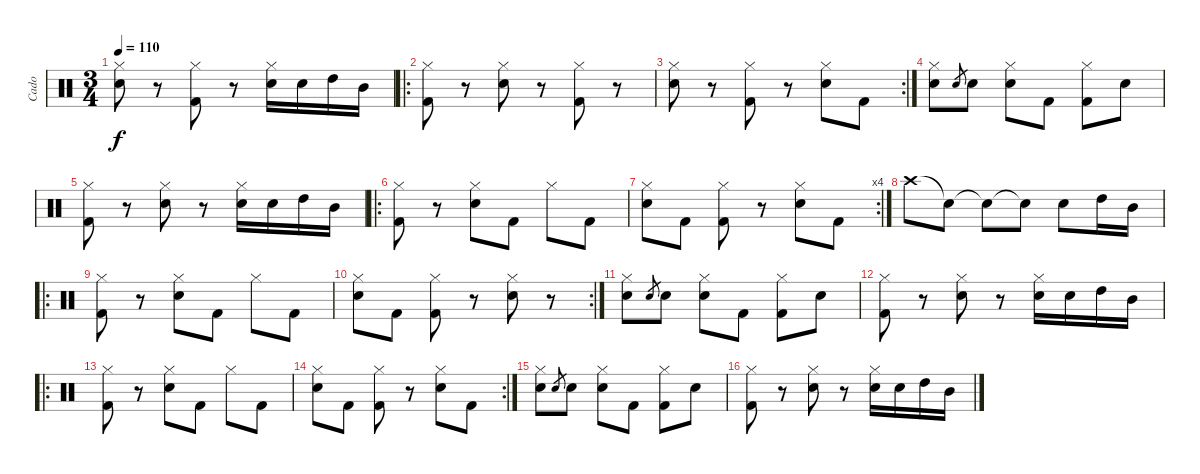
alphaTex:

\track ("Cado" "Cado") {instrument percussion}
\staff {score}
\articulation defaults
\ts (3 4)
\tempo 110
\clef neutral
\ks c
("Hi-Hat (closed)" "Snare (hit) 2").8{dy f} r.8 ("Hi-Hat (closed)" "Kick (hit) 2").8 r.8 ("Hi-Hat (closed)" "Snare (hit) 2").16 "Snare (hit) 2".16 "High Tom (hit)".16 "Mid Tom (hit)".16 |
\ro
("Hi-Hat (closed)" "Kick (hit) 2").8 r.8 ("Hi-Hat (closed)" "Snare (hit) 2").8 r.8 ("Hi-Hat (closed)" "Kick (hit) 2").8 r.8 |
\rc 2
("Hi-Hat (closed)" "Snare (hit) 2").8 r.8 ("Hi-Hat (closed)" "Kick (hit) 2").8 r.8 ("Hi-Hat (closed)" "Snare (hit) 2").8 "Kick (hit) 2".8 |
("Hi-Hat (closed)" "Snare (hit) 2").8 "Snare (hit) 2".8{gr} "Snare (hit) 2".8 ("Hi-Hat (closed)" "Snare (hit) 2").8 "Kick (hit) 2".8 ("Hi-Hat (closed)" "Kick (hit) 2").8 "Snare (hit) 2".8 |
("Hi-Hat (closed)" "Kick (hit) 2").8 r.8 ("Hi-Hat (closed)" "Snare (hit) 2").8 r.8 ("Hi-Hat (closed)" "Snare (hit) 2").16 "Snare (hit) 2".16 "High Tom (hit)".16 "Mid Tom (hit)".16 |
\ro
("Hi-Hat (closed)" "Kick (hit) 2").8 r.8 ("Hi-Hat (closed)" "Snare (hit) 2").8 "Kick (hit) 2".8 "Hi-Hat (closed)".8 "Kick (hit) 2".8 |
\rc 4
("Hi-Hat (closed)" "Snare (hit) 2").8 "Kick (hit) 2".8 ("Hi-Hat (closed)" "Kick (hit) 2").8 r.8 ("Hi-Hat (closed)" "Snare (hit) 2").8 "Kick (hit) 2".8 |
"Crash high (hit)".8 "Snare (hit)"{t}.8 "Snare (hit)"{t}.8 "Snare (hit)"{t}.8 "Snare (hit) 2".8 "High Tom (hit)".16 "Mid Tom (hit)".16 |
\ro
("Hi-Hat (closed)" "Kick (hit) 2").8 r.8 ("Hi-Hat (closed)" "Snare (hit) 2").8 "Kick (hit) 2".8 "Hi-Hat (closed)".8 "Kick (hit) 2".8 |
\rc 2
("Hi-Hat (closed)" "Snare (hit) 2").8 "Kick (hit) 2".8 ("Hi-Hat (closed)" "Kick (hit) 2").8 r.8 ("Hi-Hat (closed)" "Snare (hit) 2").8 r.8 |
("Hi-Hat (closed)" "Snare (hit) 2").8 "Snare (hit) 2".8{gr} "Snare (hit) 2".8 ("Hi-Hat (closed)" "Snare (hit) 2").8 "Kick (hit) 2".8 ("Hi-Hat (closed)" "Kick (hit) 2").8 "Snare (hit) 2".8 |
("Hi-Hat (closed)" "Kick (hit) 2").8 r.8 ("Hi-Hat (closed)" "Snare (hit) 2").8 r.8 ("Hi-Hat (closed)" "Snare (hit) 2").16 "Snare (hit) 2".16 "High Tom (hit)".16 "Mid Tom (hit)".16 |
\ro
("Hi-Hat (closed)" "Kick (hit) 2").8 r.8 ("Hi-Hat (closed)" "Snare (hit) 2").8 "Kick (hit) 2".8 "Hi-Hat (closed)".8 "Kick (hit) 2".8 |
\rc 2
("Hi-Hat (closed)" "Snare (hit) 2").8 "Kick (hit) 2".8 ("Hi-Hat (closed)" "Kick (hit) 2").8 r.8 ("Hi-Hat (closed)" "Snare (hit) 2").8 "Kick (hit) 2".8 |
("Hi-Hat (closed)" "Snare (hit) 2").8 "Snare (hit) 2".8{gr} "Snare (hit) 2".8 ("Hi-Hat (closed)" "Snare (hit) 2").8 "Kick (hit) 2".8 ("Hi-Hat (closed)" "Kick (hit) 2").8 "Snare (hit) 2".8 |
("Hi-Hat (closed)" "Kick (hit) 2").8 r.8 ("Hi-Hat (closed)" "Snare (hit) 2").8 r.8 ("Hi-Hat (closed)" "Snare (hit) 2").16 "Snare (hit) 2".16 "High Tom (hit)".16 "Mid Tom (hit)".16
